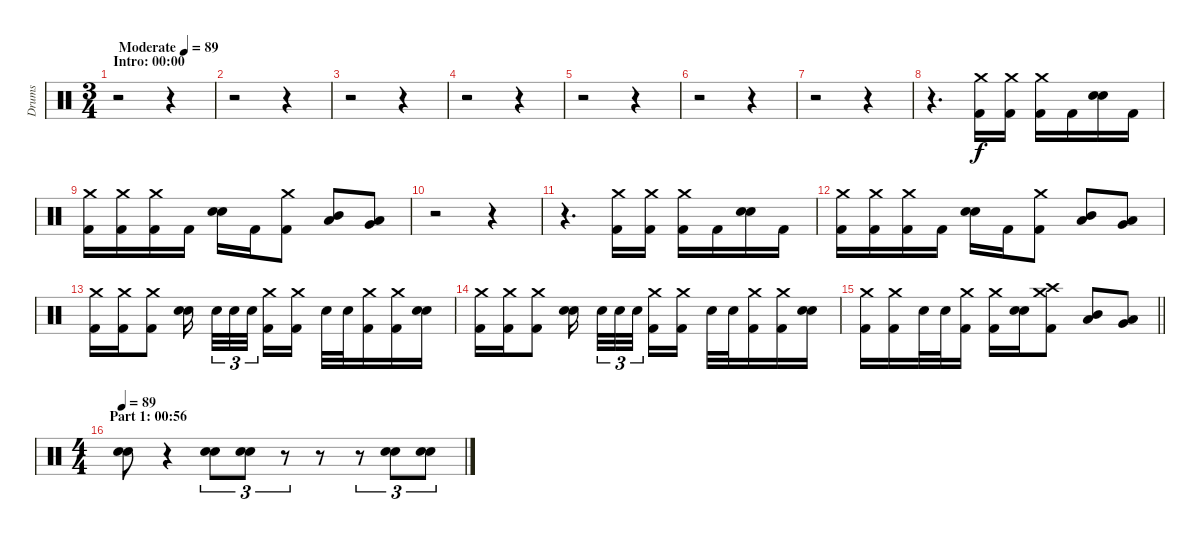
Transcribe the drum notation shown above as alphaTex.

\track ("Drums" "Drums") {instrument percussion}
\staff {score}
\articulation defaults
\ts (3 4)
\section ("" "Intro: 00:00")
\tempo (89 "Moderate")
\tempo 46
\tempo (89 "Moderate")
\clef neutral
\ks c
r.2{dy f} r.4 |
r.2 r.4 |
r.2 r.4 |
r.2 r.4 |
r.2 r.4 |
r.2 r.4 |
r.2 r.4 |
r.4{d} ("Crash medium (hit)" "Kick (hit) 2").16 ("Crash medium (hit)" "Kick (hit) 2").16 ("Crash medium (hit)" "Kick (hit) 2").16 "Kick (hit) 2".16 ("Electric Snare (hit)" "Electric Snare (hit)").16{bd 30} "Kick (hit) 2".16 |
("Crash medium (hit)" "Kick (hit) 2").16 ("Crash medium (hit)" "Kick (hit) 2").16 ("Crash medium (hit)" "Kick (hit) 2").16 "Kick (hit) 2".16 ("Electric Snare (hit)" "Electric Snare (hit)").16{bd 30} "Kick (hit) 2".16 ("Crash medium (hit)" "Kick (hit) 2").8 ("Low Tom (hit)" "Mid Tom (hit)").8{bd 30} ("Low Tom (hit)" "Very Low Tom (hit)").8{bd 30} |
r.2 r.4 |
r.4{d} ("Crash medium (hit)" "Kick (hit) 2").16 ("Crash medium (hit)" "Kick (hit) 2").16 ("Crash medium (hit)" "Kick (hit) 2").16 "Kick (hit) 2".16 ("Electric Snare (hit)" "Electric Snare (hit)").16{bd 30} "Kick (hit) 2".16 |
("Crash medium (hit)" "Kick (hit) 2").16 ("Crash medium (hit)" "Kick (hit) 2").16 ("Crash medium (hit)" "Kick (hit) 2").16 "Kick (hit) 2".16 ("Electric Snare (hit)" "Electric Snare (hit)").16{bd 30} "Kick (hit) 2".16 ("Crash medium (hit)" "Kick (hit) 2").8 ("Low Tom (hit)" "Mid Tom (hit)").8{bd 30} ("Low Tom (hit)" "Very Low Tom (hit)").8{bd 30} |
("Crash medium (hit)" "Kick (hit) 2").16 ("Crash medium (hit)" "Kick (hit) 2").16 ("Crash medium (hit)" "Kick (hit) 2").8 ("Electric Snare (hit)" "Electric Snare (hit)").16{bd 30 beam splitsecondary} "Electric Snare (hit)".32{tu (3 2)} "Electric Snare (hit)".32{tu (3 2)} "Electric Snare (hit)".32{tu (3 2) beam splitsecondary} ("Crash medium (hit)" "Kick (hit) 2").16 ("Crash medium (hit)" "Kick (hit) 2").16 "Electric Snare (hit)".32 "Electric Snare (hit)".32 ("Crash medium (hit)" "Kick (hit) 2").16 ("Crash medium (hit)" "Kick (hit) 2").16 ("Electric Snare (hit)" "Electric Snare (hit)").16{bd 30} |
("Crash medium (hit)" "Kick (hit) 2").16 ("Crash medium (hit)" "Kick (hit) 2").16 ("Crash medium (hit)" "Kick (hit) 2").8 ("Electric Snare (hit)" "Electric Snare (hit)").16{bd 30 beam splitsecondary} "Electric Snare (hit)".32{tu (3 2)} "Electric Snare (hit)".32{tu (3 2)} "Electric Snare (hit)".32{tu (3 2) beam splitsecondary} ("Crash medium (hit)" "Kick (hit) 2").16 ("Crash medium (hit)" "Kick (hit) 2").16 "Electric Snare (hit)".32 "Electric Snare (hit)".32 ("Crash medium (hit)" "Kick (hit) 2").16 ("Crash medium (hit)" "Kick (hit) 2").16 ("Electric Snare (hit)" "Electric Snare (hit)").16{bd 30} |
\barLineRight lightlight
("Crash medium (hit)" "Kick (hit) 2").16 ("Crash medium (hit)" "Kick (hit) 2").16 "Electric Snare (hit)".32 "Electric Snare (hit)".32 ("Crash medium (hit)" "Kick (hit) 2").16 ("Crash medium (hit)" "Kick (hit) 2").16 ("Electric Snare (hit)" "Electric Snare (hit)").16{bd 30} ("Crash high (hit)" "Crash medium (hit)" "Kick (hit) 2").8 ("Low Tom (hit)" "Mid Tom (hit)").8 ("Low Tom (hit)" "Very Low Tom (hit)").8 |
\ts (4 4)
\section ("" "Part 1: 00:56")
\tempo 89
("Electric Snare (hit)" "Electric Snare (hit)").8{bd 30} r.4 ("Electric Snare (hit)" "Electric Snare (hit)").8{tu (3 2)} ("Electric Snare (hit)" "Electric Snare (hit)").8{tu (3 2)} r.8{tu (3 2)} r.8 r.8{tu (3 2)} ("Electric Snare (hit)" "Electric Snare (hit)").8{tu (3 2)} ("Electric Snare (hit)" "Electric Snare (hit)").8{tu (3 2)}
